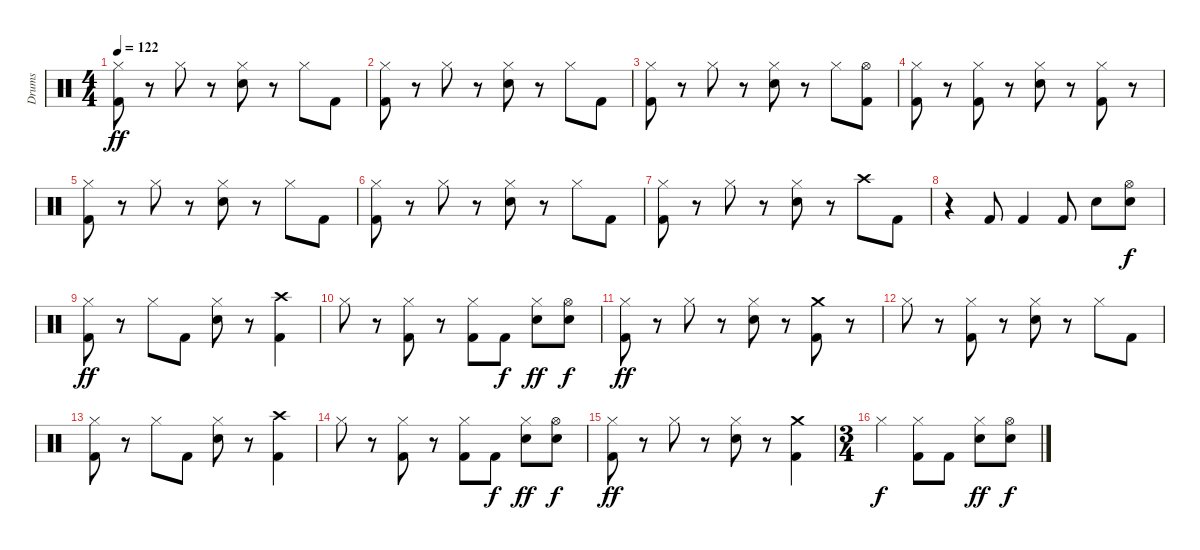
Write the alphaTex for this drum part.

\track ("Drums" "Drums") {instrument percussion}
\staff {score}
\articulation defaults
\ts (4 4)
\tempo 122
\clef neutral
\ks c
("Hi-Hat (closed)" "Kick (hit) 2").8{dy ff} r.8 "Hi-Hat (closed)".8 r.8 ("Hi-Hat (closed)" "Snare (hit) 2").8 r.8 "Hi-Hat (closed)".8 "Kick (hit) 2".8 |
("Hi-Hat (closed)" "Kick (hit) 2").8 r.8 "Hi-Hat (closed)".8 r.8 ("Hi-Hat (closed)" "Snare (hit) 2").8 r.8 "Hi-Hat (closed)".8 "Kick (hit) 2".8 |
("Hi-Hat (closed)" "Kick (hit) 2").8 r.8 "Hi-Hat (closed)".8 r.8 ("Hi-Hat (closed)" "Snare (hit) 2").8 r.8 "Hi-Hat (closed)".8 ("Hi-Hat (open)" "Kick (hit) 2").8 |
("Hi-Hat (closed)" "Kick (hit) 2").8 r.8 ("Hi-Hat (closed)" "Kick (hit) 2").8 r.8 ("Hi-Hat (closed)" "Snare (hit) 2").8 r.8 ("Hi-Hat (closed)" "Kick (hit) 2").8 r.8 |
("Hi-Hat (closed)" "Kick (hit) 2").8 r.8 "Hi-Hat (closed)".8 r.8 ("Hi-Hat (closed)" "Snare (hit) 2").8 r.8 "Hi-Hat (closed)".8 "Kick (hit) 2".8 |
("Hi-Hat (closed)" "Kick (hit) 2").8 r.8 "Hi-Hat (closed)".8 r.8 ("Hi-Hat (closed)" "Snare (hit) 2").8 r.8 "Hi-Hat (closed)".8 "Kick (hit) 2".8 |
("Hi-Hat (closed)" "Kick (hit) 2").8 r.8 "Hi-Hat (closed)".8 r.8 ("Hi-Hat (closed)" "Snare (hit) 2").8 r.8 "Crash high (hit)".8 "Kick (hit) 2".8 |
r.4 "Kick (hit) 2".8 "Kick (hit) 2".4 "Kick (hit) 2".8 "Snare (hit) 2".8 ("Hi-Hat (open)" "Snare (hit) 2").8{dy f} |
("Hi-Hat (closed)" "Kick (hit) 2").8{dy ff} r.8 "Hi-Hat (closed)".8 "Kick (hit) 2".8 ("Hi-Hat (closed)" "Snare (hit) 2").8 r.8 ("Crash high (hit)" "Kick (hit) 2").4 |
"Hi-Hat (closed)".8 r.8 ("Hi-Hat (closed)" "Kick (hit) 2").8 r.8 ("Hi-Hat (closed)" "Kick (hit) 2").8 "Kick (hit) 2".8{dy f} ("Hi-Hat (closed)" "Snare (hit) 2").8{dy ff} ("Hi-Hat (open)" "Snare (hit) 2").8{dy f} |
("Hi-Hat (closed)" "Kick (hit) 2").8{dy ff} r.8 "Hi-Hat (closed)".8 r.8 ("Hi-Hat (closed)" "Snare (hit) 2").8 r.8 ("Crash medium (hit)" "Kick (hit) 2").8 r.8 |
"Hi-Hat (closed)".8 r.8 ("Hi-Hat (closed)" "Kick (hit) 2").8 r.8 ("Hi-Hat (closed)" "Snare (hit) 2").8 r.8 "Hi-Hat (closed)".8 "Kick (hit) 2".8 |
("Hi-Hat (closed)" "Kick (hit) 2").8 r.8 "Hi-Hat (closed)".8 "Kick (hit) 2".8 ("Hi-Hat (closed)" "Snare (hit) 2").8 r.8 ("Crash high (hit)" "Kick (hit) 2").4 |
"Hi-Hat (closed)".8 r.8 ("Hi-Hat (closed)" "Kick (hit) 2").8 r.8 ("Hi-Hat (closed)" "Kick (hit) 2").8 "Kick (hit) 2".8{dy f} ("Hi-Hat (closed)" "Snare (hit) 2").8{dy ff} ("Hi-Hat (open)" "Snare (hit) 2").8{dy f} |
("Hi-Hat (closed)" "Kick (hit) 2").8{dy ff} r.8 "Hi-Hat (closed)".8 r.8 ("Hi-Hat (closed)" "Snare (hit) 2").8 r.8 ("Crash medium (hit)" "Kick (hit) 2").4 |
\ts (3 4)
"Hi-Hat (closed)".4{dy f} ("Hi-Hat (closed)" "Kick (hit) 2").8 "Kick (hit) 2".8 ("Hi-Hat (closed)" "Snare (hit) 2").8{dy ff} ("Hi-Hat (open)" "Snare (hit) 2").8{dy f}
